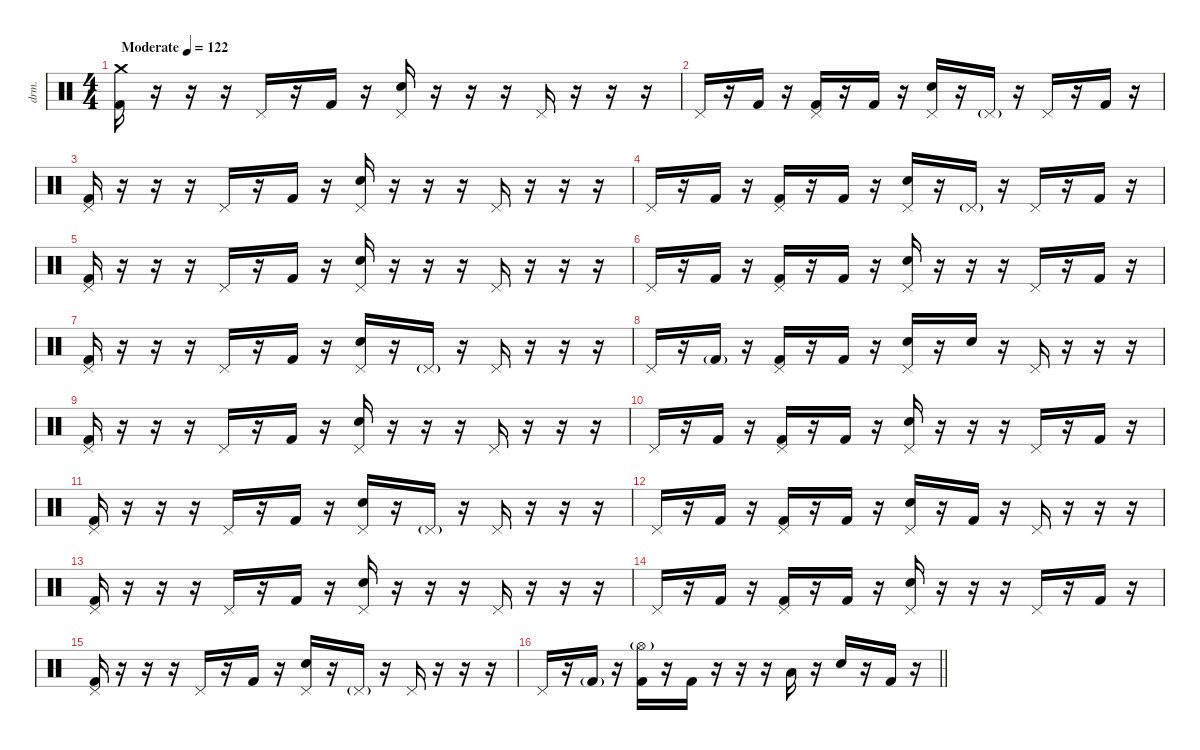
\defaultSystemsLayout 4
\hideDynamics
\bracketExtendMode nobrackets
\otherSystemsTrackNameOrientation horizontal
\track ("Percussion" "drm.") {instrument percussion}
\staff {score}
\articulation defaults
\ts (4 4)
\beaming (8 2 2 2 2)
\tempo (122 "Moderate")
\clef neutral
\ks c
("Kick (hit) 2" "Crash medium (hit)").16{dy f beam Down} r.16{beam Down} r.16{beam Down} r.16{beam Down} "Pedal Hi-Hat (hit)".16{beam Up} r.16{beam Up} "Kick (hit) 2".16{beam Up} r.16{beam Up} ("Snare (hit) 2" "Pedal Hi-Hat (hit)").16{beam Up} r.16{beam Up} r.16{beam Up} r.16{beam Up} "Pedal Hi-Hat (hit)".16{beam Up} r.16{beam Up} r.16{beam Up} r.16{beam Up} |
"Pedal Hi-Hat (hit)".16{beam Up} r.16{beam Up} "Kick (hit) 2".16{beam Up} r.16{beam Up} ("Kick (hit) 2" "Pedal Hi-Hat (hit)").16{beam Up} r.16{beam Up} "Kick (hit) 2".16{beam Up} r.16{beam Up} ("Snare (hit) 2" "Pedal Hi-Hat (hit)").16{beam Up} r.16{beam Up} "Pedal Hi-Hat (hit)"{g}.16{dy mf beam Up} r.16{beam Up} "Pedal Hi-Hat (hit)".16{dy f beam Up} r.16{beam Up} "Kick (hit) 2".16{beam Up} r.16{beam Up} |
("Kick (hit) 2" "Pedal Hi-Hat (hit)").16{beam Up} r.16{beam Up} r.16{beam Up} r.16{beam Up} "Pedal Hi-Hat (hit)".16{beam Up} r.16{beam Up} "Kick (hit) 2".16{beam Up} r.16{beam Up} ("Snare (hit) 2" "Pedal Hi-Hat (hit)").16{beam Up} r.16{beam Up} r.16{beam Up} r.16{beam Up} "Pedal Hi-Hat (hit)".16{beam Up} r.16{beam Up} r.16{beam Up} r.16{beam Up} |
"Pedal Hi-Hat (hit)".16{beam Up} r.16{beam Up} "Kick (hit) 2".16{beam Up} r.16{beam Up} ("Kick (hit) 2" "Pedal Hi-Hat (hit)").16{beam Up} r.16{beam Up} "Kick (hit) 2".16{beam Up} r.16{beam Up} ("Snare (hit) 2" "Pedal Hi-Hat (hit)").16{beam Up} r.16{beam Up} "Pedal Hi-Hat (hit)"{g}.16{dy mf beam Up} r.16{beam Up} "Pedal Hi-Hat (hit)".16{dy f beam Up} r.16{beam Up} "Kick (hit) 2".16{beam Up} r.16{beam Up} |
("Kick (hit) 2" "Pedal Hi-Hat (hit)").16{beam Up} r.16{beam Up} r.16{beam Up} r.16{beam Up} "Pedal Hi-Hat (hit)".16{beam Up} r.16{beam Up} "Kick (hit) 2".16{beam Up} r.16{beam Up} ("Snare (hit) 2" "Pedal Hi-Hat (hit)").16{beam Up} r.16{beam Up} r.16{beam Up} r.16{beam Up} "Pedal Hi-Hat (hit)".16{beam Up} r.16{beam Up} r.16{beam Up} r.16{beam Up} |
"Pedal Hi-Hat (hit)".16{beam Up} r.16{beam Up} "Kick (hit) 2".16{beam Up} r.16{beam Up} ("Kick (hit) 2" "Pedal Hi-Hat (hit)").16{beam Up} r.16{beam Up} "Kick (hit) 2".16{beam Up} r.16{beam Up} ("Snare (hit) 2" "Pedal Hi-Hat (hit)").16{beam Up} r.16{beam Up} r.16{beam Up} r.16{beam Up} "Pedal Hi-Hat (hit)".16{beam Up} r.16{beam Up} "Kick (hit) 2".16{beam Up} r.16{beam Up} |
("Kick (hit) 2" "Pedal Hi-Hat (hit)").16{beam Up} r.16{beam Up} r.16{beam Up} r.16{beam Up} "Pedal Hi-Hat (hit)".16{beam Up} r.16{beam Up} "Kick (hit) 2".16{beam Up} r.16{beam Up} ("Snare (hit) 2" "Pedal Hi-Hat (hit)").16{beam Up} r.16{beam Up} "Pedal Hi-Hat (hit)"{g}.16{dy mf beam Up} r.16{beam Up} "Pedal Hi-Hat (hit)".16{dy f beam Up} r.16{beam Up} r.16{beam Up} r.16{beam Up} |
"Pedal Hi-Hat (hit)".16{beam Up} r.16{beam Up} "Kick (hit) 2"{g}.16{dy mf beam Up} r.16{beam Up} ("Kick (hit) 2" "Pedal Hi-Hat (hit)").16{dy f beam Up} r.16{beam Up} "Kick (hit) 2".16{beam Up} r.16{beam Up} ("Snare (hit) 2" "Pedal Hi-Hat (hit)").16{beam Up} r.16{beam Up} "Snare (hit) 2".16{beam Up} r.16{beam Up} "Pedal Hi-Hat (hit)".16{beam Up} r.16{beam Up} r.16{beam Up} r.16{beam Up} |
("Kick (hit) 2" "Pedal Hi-Hat (hit)").16{beam Up} r.16{beam Up} r.16{beam Up} r.16{beam Up} "Pedal Hi-Hat (hit)".16{beam Up} r.16{beam Up} "Kick (hit) 2".16{beam Up} r.16{beam Up} ("Snare (hit) 2" "Pedal Hi-Hat (hit)").16{beam Up} r.16{beam Up} r.16{beam Up} r.16{beam Up} "Pedal Hi-Hat (hit)".16{beam Up} r.16{beam Up} r.16{beam Up} r.16{beam Up} |
"Pedal Hi-Hat (hit)".16{beam Up} r.16{beam Up} "Kick (hit) 2".16{beam Up} r.16{beam Up} ("Kick (hit) 2" "Pedal Hi-Hat (hit)").16{beam Up} r.16{beam Up} "Kick (hit) 2".16{beam Up} r.16{beam Up} ("Snare (hit) 2" "Pedal Hi-Hat (hit)").16{beam Up} r.16{beam Up} r.16{beam Up} r.16{beam Up} "Pedal Hi-Hat (hit)".16{beam Up} r.16{beam Up} "Kick (hit) 2".16{beam Up} r.16{beam Up} |
("Kick (hit) 2" "Pedal Hi-Hat (hit)").16{beam Up} r.16{beam Up} r.16{beam Up} r.16{beam Up} "Pedal Hi-Hat (hit)".16{beam Up} r.16{beam Up} "Kick (hit) 2".16{beam Up} r.16{beam Up} ("Snare (hit) 2" "Pedal Hi-Hat (hit)").16{beam Up} r.16{beam Up} "Pedal Hi-Hat (hit)"{g}.16{dy mf beam Up} r.16{beam Up} "Pedal Hi-Hat (hit)".16{dy f beam Up} r.16{beam Up} r.16{beam Up} r.16{beam Up} |
"Pedal Hi-Hat (hit)".16{beam Up} r.16{beam Up} "Kick (hit) 2".16{beam Up} r.16{beam Up} ("Kick (hit) 2" "Pedal Hi-Hat (hit)").16{beam Up} r.16{beam Up} "Kick (hit) 2".16{beam Up} r.16{beam Up} ("Snare (hit) 2" "Pedal Hi-Hat (hit)").16{beam Up} r.16{beam Up} "Kick (hit) 2".16{beam Up} r.16{beam Up} "Pedal Hi-Hat (hit)".16{beam Up} r.16{beam Up} r.16{beam Up} r.16{beam Up} |
("Kick (hit) 2" "Pedal Hi-Hat (hit)").16{beam Up} r.16{beam Up} r.16{beam Up} r.16{beam Up} "Pedal Hi-Hat (hit)".16{beam Up} r.16{beam Up} "Kick (hit) 2".16{beam Up} r.16{beam Up} ("Snare (hit) 2" "Pedal Hi-Hat (hit)").16{beam Up} r.16{beam Up} r.16{beam Up} r.16{beam Up} "Pedal Hi-Hat (hit)".16{beam Up} r.16{beam Up} r.16{beam Up} r.16{beam Up} |
"Pedal Hi-Hat (hit)".16{beam Up} r.16{beam Up} "Kick (hit) 2".16{beam Up} r.16{beam Up} ("Kick (hit) 2" "Pedal Hi-Hat (hit)").16{beam Up} r.16{beam Up} "Kick (hit) 2".16{beam Up} r.16{beam Up} ("Snare (hit) 2" "Pedal Hi-Hat (hit)").16{beam Up} r.16{beam Up} r.16{beam Up} r.16{beam Up} "Pedal Hi-Hat (hit)".16{beam Up} r.16{beam Up} "Kick (hit) 2".16{beam Up} r.16{beam Up} |
("Kick (hit) 2" "Pedal Hi-Hat (hit)").16{beam Up} r.16{beam Up} r.16{beam Up} r.16{beam Up} "Pedal Hi-Hat (hit)".16{beam Up} r.16{beam Up} "Kick (hit) 2".16{beam Up} r.16{beam Up} ("Snare (hit) 2" "Pedal Hi-Hat (hit)").16{beam Up} r.16{beam Up} "Pedal Hi-Hat (hit)"{g}.16{dy mf beam Up} r.16{beam Up} "Pedal Hi-Hat (hit)".16{dy f beam Up} r.16{beam Up} r.16{beam Up} r.16{beam Up} |
\barLineRight lightlight "Pedal Hi-Hat (hit)".16{beam Up}
r.16{beam Up} "Kick (hit) 2"{g}.16{dy mf beam Up} r.16{beam Up} ("Kick (hit) 2" "Hi-Hat (open)"{g}).16{dy f beam Down} r.16{beam Down} "Kick (hit) 2".16{beam Down} r.16{beam Down} r.16{beam Down} r.16{beam Down} "Low Tom (hit)".16{beam Up} r.16{beam Up} "Snare (hit) 2".16{beam Up} r.16{beam Up} "Kick (hit) 2".16{beam Up} r.16{beam Up}
